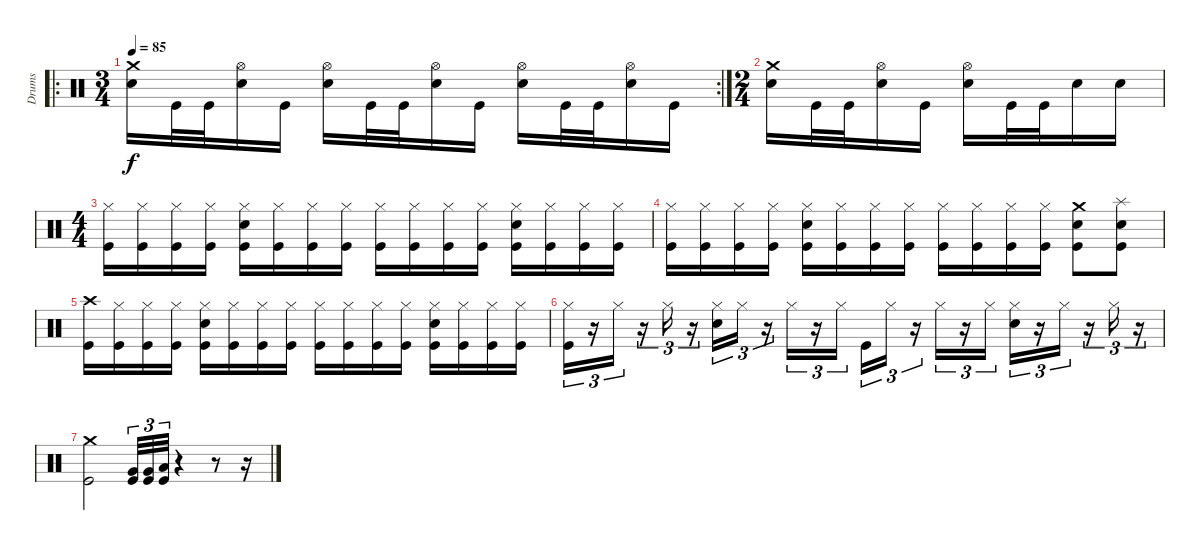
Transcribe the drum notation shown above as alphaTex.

\track ("Drums" "Drums") {instrument percussion}
\staff {score}
\articulation defaults
\ro
\rc 2
\ts (3 4)
\tempo 85
\clef neutral
\ks c
("Crash medium (hit)" "Snare (hit) 2").16{dy f} "Kick (hit)".32 "Kick (hit)".32 ("Hi-Hat (open)" "Snare (hit) 2").16 "Kick (hit)".16 ("Hi-Hat (open)" "Snare (hit) 2").16 "Kick (hit)".32 "Kick (hit)".32 ("Hi-Hat (open)" "Snare (hit) 2").16 "Kick (hit)".16 ("Hi-Hat (open)" "Snare (hit) 2").16 "Kick (hit)".32 "Kick (hit)".32 ("Hi-Hat (open)" "Snare (hit) 2").16 "Kick (hit)".16 |
\ts (2 4)
("Crash medium (hit)" "Snare (hit) 2").16 "Kick (hit)".32 "Kick (hit)".32 ("Hi-Hat (open)" "Snare (hit) 2").16 "Kick (hit)".16 ("Hi-Hat (open)" "Snare (hit) 2").16 "Kick (hit)".32 "Kick (hit)".32 "Snare (hit) 2".16 "Snare (hit) 2".16 |
\ts (4 4)
("Hi-Hat (closed)" "Kick (hit)").16 ("Hi-Hat (closed)" "Kick (hit)").16 ("Hi-Hat (closed)" "Kick (hit)").16 ("Hi-Hat (closed)" "Kick (hit)").16 ("Hi-Hat (closed)" "Snare (hit) 2" "Kick (hit)").16 ("Hi-Hat (closed)" "Kick (hit)").16 ("Hi-Hat (closed)" "Kick (hit)").16 ("Hi-Hat (closed)" "Kick (hit)").16 ("Hi-Hat (closed)" "Kick (hit)").16 ("Hi-Hat (closed)" "Kick (hit)").16 ("Hi-Hat (closed)" "Kick (hit)").16 ("Hi-Hat (closed)" "Kick (hit)").16 ("Hi-Hat (closed)" "Snare (hit) 2" "Kick (hit)").16 ("Hi-Hat (closed)" "Kick (hit)").16 ("Hi-Hat (closed)" "Kick (hit)").16 ("Hi-Hat (closed)" "Kick (hit)").16 |
("Hi-Hat (closed)" "Kick (hit)").16 ("Hi-Hat (closed)" "Kick (hit)").16 ("Hi-Hat (closed)" "Kick (hit)").16 ("Hi-Hat (closed)" "Kick (hit)").16 ("Hi-Hat (closed)" "Snare (hit) 2" "Kick (hit)").16 ("Hi-Hat (closed)" "Kick (hit)").16 ("Hi-Hat (closed)" "Kick (hit)").16 ("Hi-Hat (closed)" "Kick (hit)").16 ("Hi-Hat (closed)" "Kick (hit)").16 ("Hi-Hat (closed)" "Kick (hit)").16 ("Hi-Hat (closed)" "Kick (hit)").16 ("Hi-Hat (closed)" "Kick (hit)").16 ("Crash medium (hit)" "Snare (hit) 2" "Kick (hit)").8 ("Splash (hit)" "Snare (hit) 2" "Kick (hit)").8 |
("Crash high (hit)" "Kick (hit)").16 ("Hi-Hat (closed)" "Kick (hit)").16 ("Hi-Hat (closed)" "Kick (hit)").16 ("Hi-Hat (closed)" "Kick (hit)").16 ("Hi-Hat (closed)" "Snare (hit) 2" "Kick (hit)").16 ("Hi-Hat (closed)" "Kick (hit)").16 ("Hi-Hat (closed)" "Kick (hit)").16 ("Hi-Hat (closed)" "Kick (hit)").16 ("Hi-Hat (closed)" "Kick (hit)").16 ("Hi-Hat (closed)" "Kick (hit)").16 ("Hi-Hat (closed)" "Kick (hit)").16 ("Hi-Hat (closed)" "Kick (hit)").16 ("Hi-Hat (closed)" "Snare (hit) 2" "Kick (hit)").16 ("Hi-Hat (closed)" "Kick (hit)").16 ("Hi-Hat (closed)" "Kick (hit)").16 ("Hi-Hat (closed)" "Kick (hit)").16 |
("Hi-Hat (closed)" "Kick (hit)").16{tu (3 2)} r.16{tu (3 2)} "Hi-Hat (closed)".16{tu (3 2)} r.16{tu (3 2)} "Hi-Hat (closed)".16{tu (3 2)} r.16{tu (3 2)} ("Hi-Hat (closed)" "Snare (hit) 2").16{tu (3 2)} "Hi-Hat (closed)".16{tu (3 2)} r.16{tu (3 2)} "Hi-Hat (closed)".16{tu (3 2)} r.16{tu (3 2)} "Hi-Hat (closed)".16{tu (3 2)} "Kick (hit)".16{tu (3 2)} "Hi-Hat (closed)".16{tu (3 2)} r.16{tu (3 2)} "Hi-Hat (closed)".16{tu (3 2)} r.16{tu (3 2)} "Hi-Hat (closed)".16{tu (3 2)} ("Hi-Hat (closed)" "Snare (hit) 2").16{tu (3 2)} r.16{tu (3 2)} "Hi-Hat (closed)".16{tu (3 2)} r.16{tu (3 2)} "Hi-Hat (closed)".16{tu (3 2)} r.16{tu (3 2)} |
("Crash medium (hit)" "Kick (hit)").2 ("Very Low Tom (hit)" "Kick (hit)").32{tu (3 2)} ("Very Low Tom (hit)" "Kick (hit)").32{tu (3 2)} ("Low Floor Tom (hit)" "Kick (hit)").32{tu (3 2)} r.4 r.8 r.16
